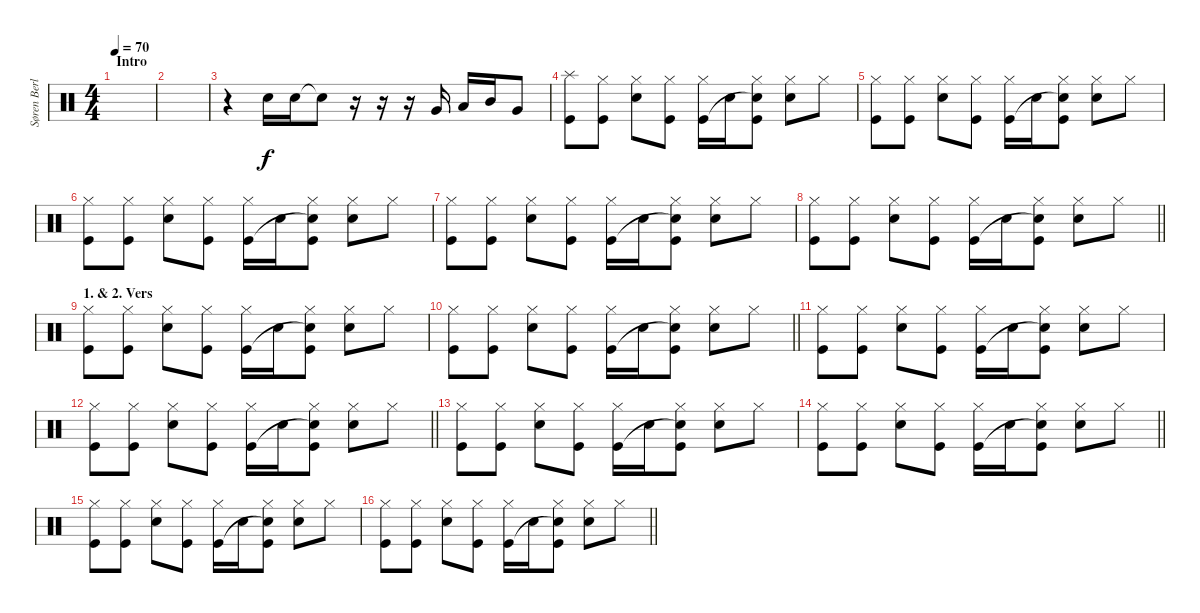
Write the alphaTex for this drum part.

\track ("Søren Berlev" "Søren Berl") {instrument percussion}
\staff {score}
\articulation defaults
\ts (4 4)
\section ("" "Intro")
\tempo 70
\clef neutral
\ks c
|
|
r.4 "Snare (hit) 2".16 "Snare (hit) 2".16 "Snare (hit)"{t}.8 r.16 r.16 r.16 "Very Low Tom (hit)".16 "Low Tom (hit)".16 "Mid Tom (hit)".16 "Very Low Tom (hit)".8 |
("Splash (hit)" "Kick (hit)").8 ("Hi-Hat (closed)" "Kick (hit)").8 ("Hi-Hat (closed)" "Snare (hit) 2").8 ("Hi-Hat (closed)" "Kick (hit)").8 ("Hi-Hat (closed)" "Kick (hit)").16 "Snare (hit) 2".16 ("Hi-Hat (closed)" "Snare (hit)"{t} "Kick (hit)").8 ("Hi-Hat (closed)" "Snare (hit) 2").8 "Hi-Hat (closed)".8 |
("Hi-Hat (closed)" "Kick (hit)").8 ("Hi-Hat (closed)" "Kick (hit)").8 ("Hi-Hat (closed)" "Snare (hit) 2").8 ("Hi-Hat (closed)" "Kick (hit)").8 ("Hi-Hat (closed)" "Kick (hit)").16 "Snare (hit) 2".16 ("Hi-Hat (closed)" "Snare (hit)"{t} "Kick (hit)").8 ("Hi-Hat (closed)" "Snare (hit) 2").8 "Hi-Hat (closed)".8 |
("Hi-Hat (closed)" "Kick (hit)").8 ("Hi-Hat (closed)" "Kick (hit)").8 ("Hi-Hat (closed)" "Snare (hit) 2").8 ("Hi-Hat (closed)" "Kick (hit)").8 ("Hi-Hat (closed)" "Kick (hit)").16 "Snare (hit) 2".16 ("Hi-Hat (closed)" "Snare (hit)"{t} "Kick (hit)").8 ("Hi-Hat (closed)" "Snare (hit) 2").8 "Hi-Hat (closed)".8 |
("Hi-Hat (closed)" "Kick (hit)").8 ("Hi-Hat (closed)" "Kick (hit)").8 ("Hi-Hat (closed)" "Snare (hit) 2").8 ("Hi-Hat (closed)" "Kick (hit)").8 ("Hi-Hat (closed)" "Kick (hit)").16 "Snare (hit) 2".16 ("Hi-Hat (closed)" "Snare (hit)"{t} "Kick (hit)").8 ("Hi-Hat (closed)" "Snare (hit) 2").8 "Hi-Hat (closed)".8 |
\barLineRight lightlight
("Hi-Hat (closed)" "Kick (hit)").8 ("Hi-Hat (closed)" "Kick (hit)").8 ("Hi-Hat (closed)" "Snare (hit) 2").8 ("Hi-Hat (closed)" "Kick (hit)").8 ("Hi-Hat (closed)" "Kick (hit)").16 "Snare (hit) 2".16 ("Hi-Hat (closed)" "Snare (hit)"{t} "Kick (hit)").8 ("Hi-Hat (closed)" "Snare (hit) 2").8 "Hi-Hat (closed)".8 |
\section ("" "1. & 2. Vers")
("Hi-Hat (closed)" "Kick (hit)").8 ("Hi-Hat (closed)" "Kick (hit)").8 ("Hi-Hat (closed)" "Snare (hit) 2").8 ("Hi-Hat (closed)" "Kick (hit)").8 ("Hi-Hat (closed)" "Kick (hit)").16 "Snare (hit) 2".16 ("Hi-Hat (closed)" "Snare (hit)"{t} "Kick (hit)").8 ("Hi-Hat (closed)" "Snare (hit) 2").8 "Hi-Hat (closed)".8 |
\barLineRight lightlight
("Hi-Hat (closed)" "Kick (hit)").8 ("Hi-Hat (closed)" "Kick (hit)").8 ("Hi-Hat (closed)" "Snare (hit) 2").8 ("Hi-Hat (closed)" "Kick (hit)").8 ("Hi-Hat (closed)" "Kick (hit)").16 "Snare (hit) 2".16 ("Hi-Hat (closed)" "Snare (hit)"{t} "Kick (hit)").8 ("Hi-Hat (closed)" "Snare (hit) 2").8 "Hi-Hat (closed)".8 |
("Hi-Hat (closed)" "Kick (hit)").8 ("Hi-Hat (closed)" "Kick (hit)").8 ("Hi-Hat (closed)" "Snare (hit) 2").8 ("Hi-Hat (closed)" "Kick (hit)").8 ("Hi-Hat (closed)" "Kick (hit)").16 "Snare (hit) 2".16 ("Hi-Hat (closed)" "Snare (hit)"{t} "Kick (hit)").8 ("Hi-Hat (closed)" "Snare (hit) 2").8 "Hi-Hat (closed)".8 |
\barLineRight lightlight
("Hi-Hat (closed)" "Kick (hit)").8 ("Hi-Hat (closed)" "Kick (hit)").8 ("Hi-Hat (closed)" "Snare (hit) 2").8 ("Hi-Hat (closed)" "Kick (hit)").8 ("Hi-Hat (closed)" "Kick (hit)").16 "Snare (hit) 2".16 ("Hi-Hat (closed)" "Snare (hit)"{t} "Kick (hit)").8 ("Hi-Hat (closed)" "Snare (hit) 2").8 "Hi-Hat (closed)".8 |
("Hi-Hat (closed)" "Kick (hit)").8 ("Hi-Hat (closed)" "Kick (hit)").8 ("Hi-Hat (closed)" "Snare (hit) 2").8 ("Hi-Hat (closed)" "Kick (hit)").8 ("Hi-Hat (closed)" "Kick (hit)").16 "Snare (hit) 2".16 ("Hi-Hat (closed)" "Snare (hit)"{t} "Kick (hit)").8 ("Hi-Hat (closed)" "Snare (hit) 2").8 "Hi-Hat (closed)".8 |
\barLineRight lightlight
("Hi-Hat (closed)" "Kick (hit)").8 ("Hi-Hat (closed)" "Kick (hit)").8 ("Hi-Hat (closed)" "Snare (hit) 2").8 ("Hi-Hat (closed)" "Kick (hit)").8 ("Hi-Hat (closed)" "Kick (hit)").16 "Snare (hit) 2".16 ("Hi-Hat (closed)" "Snare (hit)"{t} "Kick (hit)").8 ("Hi-Hat (closed)" "Snare (hit) 2").8 "Hi-Hat (closed)".8 |
("Hi-Hat (closed)" "Kick (hit)").8 ("Hi-Hat (closed)" "Kick (hit)").8 ("Hi-Hat (closed)" "Snare (hit) 2").8 ("Hi-Hat (closed)" "Kick (hit)").8 ("Hi-Hat (closed)" "Kick (hit)").16 "Snare (hit) 2".16 ("Hi-Hat (closed)" "Snare (hit)"{t} "Kick (hit)").8 ("Hi-Hat (closed)" "Snare (hit) 2").8 "Hi-Hat (closed)".8 |
\barLineRight lightlight
("Hi-Hat (closed)" "Kick (hit)").8 ("Hi-Hat (closed)" "Kick (hit)").8 ("Hi-Hat (closed)" "Snare (hit) 2").8 ("Hi-Hat (closed)" "Kick (hit)").8 ("Hi-Hat (closed)" "Kick (hit)").16 "Snare (hit) 2".16 ("Hi-Hat (closed)" "Snare (hit)"{t} "Kick (hit)").8 ("Hi-Hat (closed)" "Snare (hit) 2").8 "Hi-Hat (closed)".8
